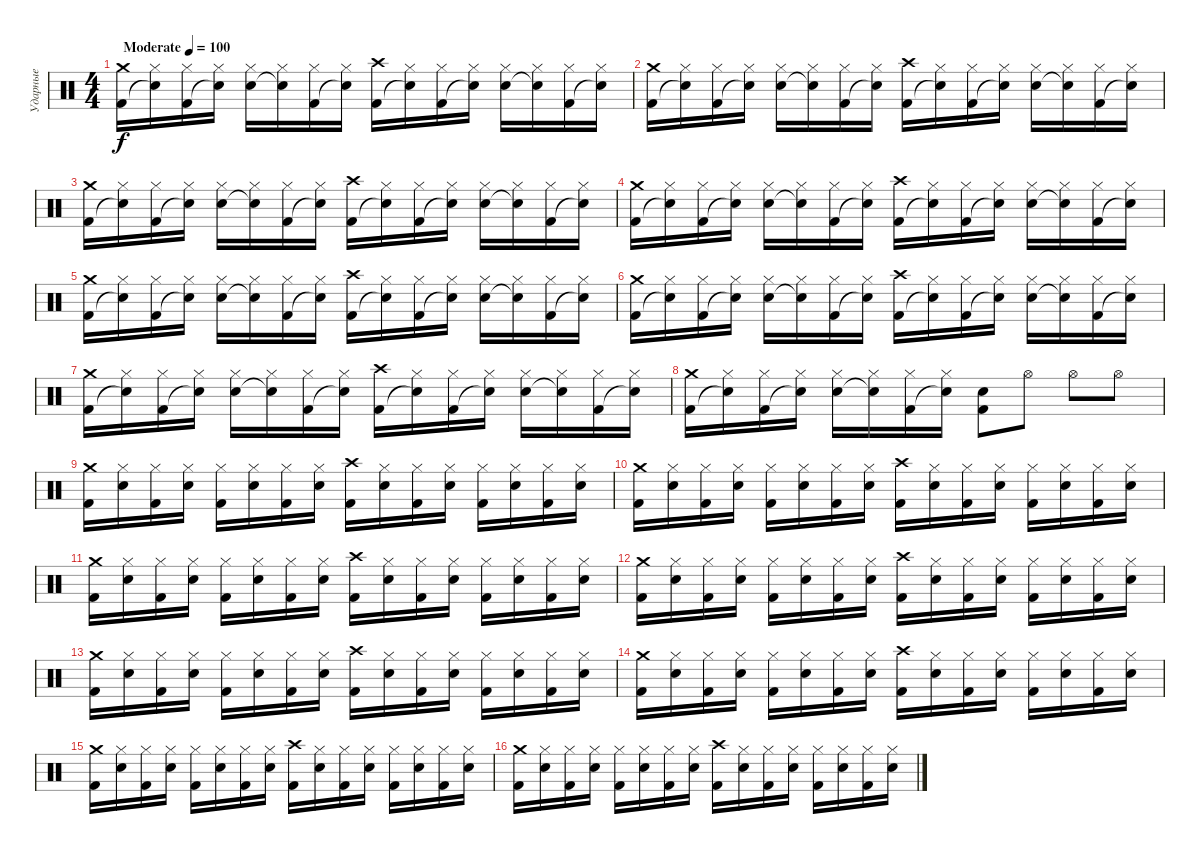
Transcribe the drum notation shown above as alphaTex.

\track ("Ударные" "Ударные") {instrument percussion}
\staff {score}
\articulation defaults
\ts (4 4)
\tempo (100 "Moderate")
\clef neutral
\ks c
("Crash medium (hit)" "Kick (hit) 2").16{dy f} ("Hi-Hat (closed)" "Snare (hit)"{t}).16 ("Hi-Hat (closed)" "Kick (hit) 2").16 ("Hi-Hat (closed)" "Snare (hit)"{t}).16 ("Hi-Hat (closed)" "Snare (hit) 2").16 ("Hi-Hat (closed)" "Snare (hit)"{t}).16 ("Hi-Hat (closed)" "Kick (hit) 2").16 ("Hi-Hat (closed)" "Snare (hit)"{t}).16 ("Crash high (hit)" "Kick (hit) 2").16 ("Hi-Hat (closed)" "Snare (hit)"{t}).16 ("Hi-Hat (closed)" "Kick (hit) 2").16 ("Hi-Hat (closed)" "Snare (hit)"{t}).16 ("Hi-Hat (closed)" "Snare (hit) 2").16 ("Hi-Hat (closed)" "Snare (hit)"{t}).16 ("Hi-Hat (closed)" "Kick (hit) 2").16 ("Hi-Hat (closed)" "Snare (hit)"{t}).16 |
("Crash medium (hit)" "Kick (hit) 2").16 ("Hi-Hat (closed)" "Snare (hit)"{t}).16 ("Hi-Hat (closed)" "Kick (hit) 2").16 ("Hi-Hat (closed)" "Snare (hit)"{t}).16 ("Hi-Hat (closed)" "Snare (hit) 2").16 ("Hi-Hat (closed)" "Snare (hit)"{t}).16 ("Hi-Hat (closed)" "Kick (hit) 2").16 ("Hi-Hat (closed)" "Snare (hit)"{t}).16 ("Crash high (hit)" "Kick (hit) 2").16 ("Hi-Hat (closed)" "Snare (hit)"{t}).16 ("Hi-Hat (closed)" "Kick (hit) 2").16 ("Hi-Hat (closed)" "Snare (hit)"{t}).16 ("Hi-Hat (closed)" "Snare (hit) 2").16 ("Hi-Hat (closed)" "Snare (hit)"{t}).16 ("Hi-Hat (closed)" "Kick (hit) 2").16 ("Hi-Hat (closed)" "Snare (hit)"{t}).16 |
("Crash medium (hit)" "Kick (hit) 2").16 ("Hi-Hat (closed)" "Snare (hit)"{t}).16 ("Hi-Hat (closed)" "Kick (hit) 2").16 ("Hi-Hat (closed)" "Snare (hit)"{t}).16 ("Hi-Hat (closed)" "Snare (hit) 2").16 ("Hi-Hat (closed)" "Snare (hit)"{t}).16 ("Hi-Hat (closed)" "Kick (hit) 2").16 ("Hi-Hat (closed)" "Snare (hit)"{t}).16 ("Crash high (hit)" "Kick (hit) 2").16 ("Hi-Hat (closed)" "Snare (hit)"{t}).16 ("Hi-Hat (closed)" "Kick (hit) 2").16 ("Hi-Hat (closed)" "Snare (hit)"{t}).16 ("Hi-Hat (closed)" "Snare (hit) 2").16 ("Hi-Hat (closed)" "Snare (hit)"{t}).16 ("Hi-Hat (closed)" "Kick (hit) 2").16 ("Hi-Hat (closed)" "Snare (hit)"{t}).16 |
("Crash medium (hit)" "Kick (hit) 2").16 ("Hi-Hat (closed)" "Snare (hit)"{t}).16 ("Hi-Hat (closed)" "Kick (hit) 2").16 ("Hi-Hat (closed)" "Snare (hit)"{t}).16 ("Hi-Hat (closed)" "Snare (hit) 2").16 ("Hi-Hat (closed)" "Snare (hit)"{t}).16 ("Hi-Hat (closed)" "Kick (hit) 2").16 ("Hi-Hat (closed)" "Snare (hit)"{t}).16 ("Crash high (hit)" "Kick (hit) 2").16 ("Hi-Hat (closed)" "Snare (hit)"{t}).16 ("Hi-Hat (closed)" "Kick (hit) 2").16 ("Hi-Hat (closed)" "Snare (hit)"{t}).16 ("Hi-Hat (closed)" "Snare (hit) 2").16 ("Hi-Hat (closed)" "Snare (hit)"{t}).16 ("Hi-Hat (closed)" "Kick (hit) 2").16 ("Hi-Hat (closed)" "Snare (hit)"{t}).16 |
("Crash medium (hit)" "Kick (hit) 2").16 ("Hi-Hat (closed)" "Snare (hit)"{t}).16 ("Hi-Hat (closed)" "Kick (hit) 2").16 ("Hi-Hat (closed)" "Snare (hit)"{t}).16 ("Hi-Hat (closed)" "Snare (hit) 2").16 ("Hi-Hat (closed)" "Snare (hit)"{t}).16 ("Hi-Hat (closed)" "Kick (hit) 2").16 ("Hi-Hat (closed)" "Snare (hit)"{t}).16 ("Crash high (hit)" "Kick (hit) 2").16 ("Hi-Hat (closed)" "Snare (hit)"{t}).16 ("Hi-Hat (closed)" "Kick (hit) 2").16 ("Hi-Hat (closed)" "Snare (hit)"{t}).16 ("Hi-Hat (closed)" "Snare (hit) 2").16 ("Hi-Hat (closed)" "Snare (hit)"{t}).16 ("Hi-Hat (closed)" "Kick (hit) 2").16 ("Hi-Hat (closed)" "Snare (hit)"{t}).16 |
("Crash medium (hit)" "Kick (hit) 2").16 ("Hi-Hat (closed)" "Snare (hit)"{t}).16 ("Hi-Hat (closed)" "Kick (hit) 2").16 ("Hi-Hat (closed)" "Snare (hit)"{t}).16 ("Hi-Hat (closed)" "Snare (hit) 2").16 ("Hi-Hat (closed)" "Snare (hit)"{t}).16 ("Hi-Hat (closed)" "Kick (hit) 2").16 ("Hi-Hat (closed)" "Snare (hit)"{t}).16 ("Crash high (hit)" "Kick (hit) 2").16 ("Hi-Hat (closed)" "Snare (hit)"{t}).16 ("Hi-Hat (closed)" "Kick (hit) 2").16 ("Hi-Hat (closed)" "Snare (hit)"{t}).16 ("Hi-Hat (closed)" "Snare (hit) 2").16 ("Hi-Hat (closed)" "Snare (hit)"{t}).16 ("Hi-Hat (closed)" "Kick (hit) 2").16 ("Hi-Hat (closed)" "Snare (hit)"{t}).16 |
("Crash medium (hit)" "Kick (hit) 2").16 ("Hi-Hat (closed)" "Snare (hit)"{t}).16 ("Hi-Hat (closed)" "Kick (hit) 2").16 ("Hi-Hat (closed)" "Snare (hit)"{t}).16 ("Hi-Hat (closed)" "Snare (hit) 2").16 ("Hi-Hat (closed)" "Snare (hit)"{t}).16 ("Hi-Hat (closed)" "Kick (hit) 2").16 ("Hi-Hat (closed)" "Snare (hit)"{t}).16 ("Crash high (hit)" "Kick (hit) 2").16 ("Hi-Hat (closed)" "Snare (hit)"{t}).16 ("Hi-Hat (closed)" "Kick (hit) 2").16 ("Hi-Hat (closed)" "Snare (hit)"{t}).16 ("Hi-Hat (closed)" "Snare (hit) 2").16 ("Hi-Hat (closed)" "Snare (hit)"{t}).16 ("Hi-Hat (closed)" "Kick (hit) 2").16 ("Hi-Hat (closed)" "Snare (hit)"{t}).16 |
("Crash medium (hit)" "Kick (hit) 2").16 ("Hi-Hat (closed)" "Snare (hit)"{t}).16 ("Hi-Hat (closed)" "Kick (hit) 2").16 ("Hi-Hat (closed)" "Snare (hit)"{t}).16 ("Hi-Hat (closed)" "Snare (hit) 2").16 ("Hi-Hat (closed)" "Snare (hit)"{t}).16 ("Hi-Hat (closed)" "Kick (hit) 2").16 ("Hi-Hat (closed)" "Snare (hit)"{t}).16 ("Snare (hit) 2" "Kick (hit) 2").8 "Hi-Hat (open)".8 "Hi-Hat (open)".8 "Hi-Hat (open)".8 |
("Crash medium (hit)" "Kick (hit) 2").16 ("Hi-Hat (closed)" "Snare (hit) 2").16 ("Hi-Hat (closed)" "Kick (hit) 2").16 ("Hi-Hat (closed)" "Snare (hit) 2").16 ("Hi-Hat (closed)" "Kick (hit) 2").16 ("Hi-Hat (closed)" "Snare (hit) 2").16 ("Hi-Hat (closed)" "Kick (hit) 2").16 ("Hi-Hat (closed)" "Snare (hit) 2").16 ("Crash high (hit)" "Kick (hit) 2").16 ("Hi-Hat (closed)" "Snare (hit) 2").16 ("Hi-Hat (closed)" "Kick (hit) 2").16 ("Hi-Hat (closed)" "Snare (hit) 2").16 ("Hi-Hat (closed)" "Kick (hit) 2").16 ("Hi-Hat (closed)" "Snare (hit) 2").16 ("Hi-Hat (closed)" "Kick (hit) 2").16 ("Hi-Hat (closed)" "Snare (hit) 2").16 |
("Crash medium (hit)" "Kick (hit) 2").16 ("Hi-Hat (closed)" "Snare (hit) 2").16 ("Hi-Hat (closed)" "Kick (hit) 2").16 ("Hi-Hat (closed)" "Snare (hit) 2").16 ("Hi-Hat (closed)" "Kick (hit) 2").16 ("Hi-Hat (closed)" "Snare (hit) 2").16 ("Hi-Hat (closed)" "Kick (hit) 2").16 ("Hi-Hat (closed)" "Snare (hit) 2").16 ("Crash high (hit)" "Kick (hit) 2").16 ("Hi-Hat (closed)" "Snare (hit) 2").16 ("Hi-Hat (closed)" "Kick (hit) 2").16 ("Hi-Hat (closed)" "Snare (hit) 2").16 ("Hi-Hat (closed)" "Kick (hit) 2").16 ("Hi-Hat (closed)" "Snare (hit) 2").16 ("Hi-Hat (closed)" "Kick (hit) 2").16 ("Hi-Hat (closed)" "Snare (hit) 2").16 |
("Crash medium (hit)" "Kick (hit) 2").16 ("Hi-Hat (closed)" "Snare (hit) 2").16 ("Hi-Hat (closed)" "Kick (hit) 2").16 ("Hi-Hat (closed)" "Snare (hit) 2").16 ("Hi-Hat (closed)" "Kick (hit) 2").16 ("Hi-Hat (closed)" "Snare (hit) 2").16 ("Hi-Hat (closed)" "Kick (hit) 2").16 ("Hi-Hat (closed)" "Snare (hit) 2").16 ("Crash high (hit)" "Kick (hit) 2").16 ("Hi-Hat (closed)" "Snare (hit) 2").16 ("Hi-Hat (closed)" "Kick (hit) 2").16 ("Hi-Hat (closed)" "Snare (hit) 2").16 ("Hi-Hat (closed)" "Kick (hit) 2").16 ("Hi-Hat (closed)" "Snare (hit) 2").16 ("Hi-Hat (closed)" "Kick (hit) 2").16 ("Hi-Hat (closed)" "Snare (hit) 2").16 |
("Crash medium (hit)" "Kick (hit) 2").16 ("Hi-Hat (closed)" "Snare (hit) 2").16 ("Hi-Hat (closed)" "Kick (hit) 2").16 ("Hi-Hat (closed)" "Snare (hit) 2").16 ("Hi-Hat (closed)" "Kick (hit) 2").16 ("Hi-Hat (closed)" "Snare (hit) 2").16 ("Hi-Hat (closed)" "Kick (hit) 2").16 ("Hi-Hat (closed)" "Snare (hit) 2").16 ("Crash high (hit)" "Kick (hit) 2").16 ("Hi-Hat (closed)" "Snare (hit) 2").16 ("Hi-Hat (closed)" "Kick (hit) 2").16 ("Hi-Hat (closed)" "Snare (hit) 2").16 ("Hi-Hat (closed)" "Kick (hit) 2").16 ("Hi-Hat (closed)" "Snare (hit) 2").16 ("Hi-Hat (closed)" "Kick (hit) 2").16 ("Hi-Hat (closed)" "Snare (hit) 2").16 |
("Crash medium (hit)" "Kick (hit) 2").16 ("Hi-Hat (closed)" "Snare (hit) 2").16 ("Hi-Hat (closed)" "Kick (hit) 2").16 ("Hi-Hat (closed)" "Snare (hit) 2").16 ("Hi-Hat (closed)" "Kick (hit) 2").16 ("Hi-Hat (closed)" "Snare (hit) 2").16 ("Hi-Hat (closed)" "Kick (hit) 2").16 ("Hi-Hat (closed)" "Snare (hit) 2").16 ("Crash high (hit)" "Kick (hit) 2").16 ("Hi-Hat (closed)" "Snare (hit) 2").16 ("Hi-Hat (closed)" "Kick (hit) 2").16 ("Hi-Hat (closed)" "Snare (hit) 2").16 ("Hi-Hat (closed)" "Kick (hit) 2").16 ("Hi-Hat (closed)" "Snare (hit) 2").16 ("Hi-Hat (closed)" "Kick (hit) 2").16 ("Hi-Hat (closed)" "Snare (hit) 2").16 |
("Crash medium (hit)" "Kick (hit) 2").16 ("Hi-Hat (closed)" "Snare (hit) 2").16 ("Hi-Hat (closed)" "Kick (hit) 2").16 ("Hi-Hat (closed)" "Snare (hit) 2").16 ("Hi-Hat (closed)" "Kick (hit) 2").16 ("Hi-Hat (closed)" "Snare (hit) 2").16 ("Hi-Hat (closed)" "Kick (hit) 2").16 ("Hi-Hat (closed)" "Snare (hit) 2").16 ("Crash high (hit)" "Kick (hit) 2").16 ("Hi-Hat (closed)" "Snare (hit) 2").16 ("Hi-Hat (closed)" "Kick (hit) 2").16 ("Hi-Hat (closed)" "Snare (hit) 2").16 ("Hi-Hat (closed)" "Kick (hit) 2").16 ("Hi-Hat (closed)" "Snare (hit) 2").16 ("Hi-Hat (closed)" "Kick (hit) 2").16 ("Hi-Hat (closed)" "Snare (hit) 2").16 |
("Crash medium (hit)" "Kick (hit) 2").16 ("Hi-Hat (closed)" "Snare (hit) 2").16 ("Hi-Hat (closed)" "Kick (hit) 2").16 ("Hi-Hat (closed)" "Snare (hit) 2").16 ("Hi-Hat (closed)" "Kick (hit) 2").16 ("Hi-Hat (closed)" "Snare (hit) 2").16 ("Hi-Hat (closed)" "Kick (hit) 2").16 ("Hi-Hat (closed)" "Snare (hit) 2").16 ("Crash high (hit)" "Kick (hit) 2").16 ("Hi-Hat (closed)" "Snare (hit) 2").16 ("Hi-Hat (closed)" "Kick (hit) 2").16 ("Hi-Hat (closed)" "Snare (hit) 2").16 ("Hi-Hat (closed)" "Kick (hit) 2").16 ("Hi-Hat (closed)" "Snare (hit) 2").16 ("Hi-Hat (closed)" "Kick (hit) 2").16 ("Hi-Hat (closed)" "Snare (hit) 2").16 |
("Crash medium (hit)" "Kick (hit) 2").16 ("Hi-Hat (closed)" "Snare (hit) 2").16 ("Hi-Hat (closed)" "Kick (hit) 2").16 ("Hi-Hat (closed)" "Snare (hit) 2").16 ("Hi-Hat (closed)" "Kick (hit) 2").16 ("Hi-Hat (closed)" "Snare (hit) 2").16 ("Hi-Hat (closed)" "Kick (hit) 2").16 ("Hi-Hat (closed)" "Snare (hit) 2").16 ("Crash high (hit)" "Kick (hit) 2").16 ("Hi-Hat (closed)" "Snare (hit) 2").16 ("Hi-Hat (closed)" "Kick (hit) 2").16 ("Hi-Hat (closed)" "Snare (hit) 2").16 ("Hi-Hat (closed)" "Kick (hit) 2").16 ("Hi-Hat (closed)" "Snare (hit) 2").16 ("Hi-Hat (closed)" "Kick (hit) 2").16 ("Hi-Hat (closed)" "Snare (hit) 2").16
